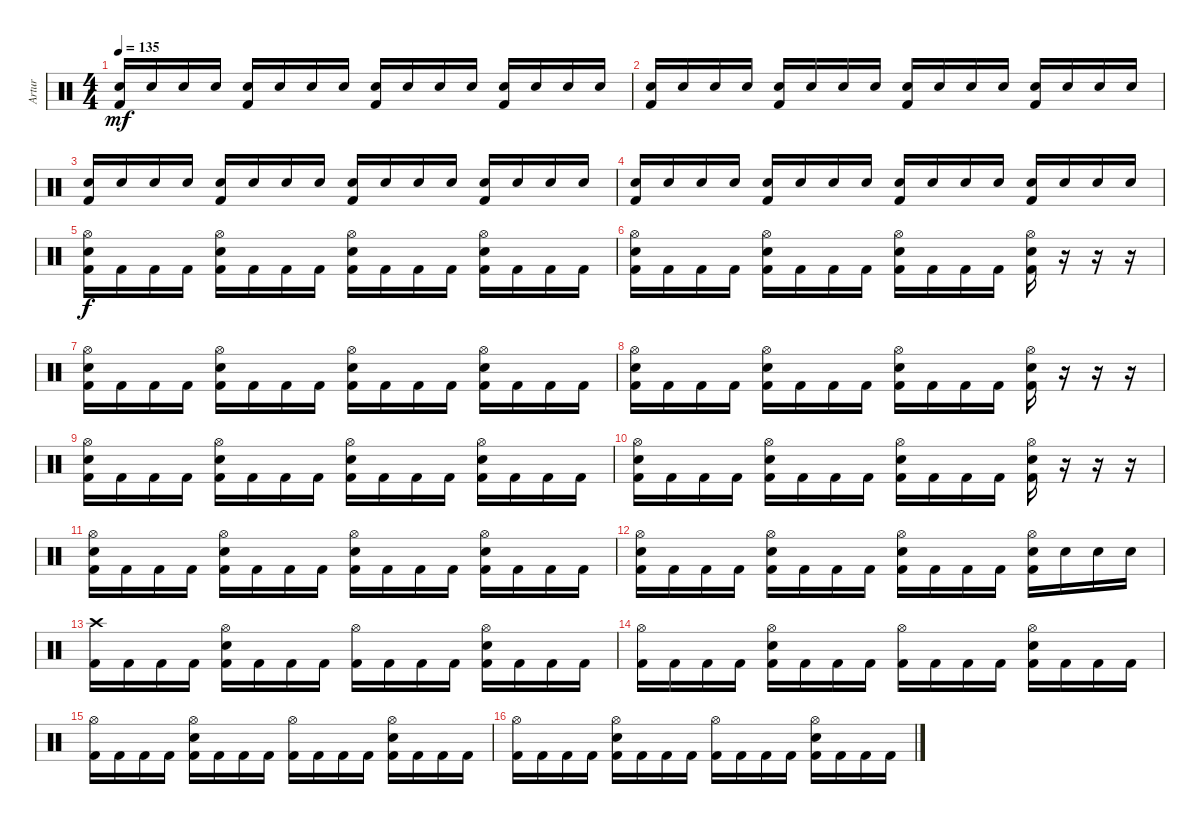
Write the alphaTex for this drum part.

\track ("Artur" "Artur") {instrument percussion}
\staff {score}
\articulation defaults
\ts (4 4)
\tempo 135
\clef neutral
\ks c
("Electric Snare (hit)" "Kick (hit) 2").16{dy mf} "Electric Snare (hit)".16 "Electric Snare (hit)".16 "Electric Snare (hit)".16 ("Electric Snare (hit)" "Kick (hit) 2").16 "Electric Snare (hit)".16 "Electric Snare (hit)".16 "Electric Snare (hit)".16 ("Electric Snare (hit)" "Kick (hit) 2").16 "Electric Snare (hit)".16 "Electric Snare (hit)".16 "Electric Snare (hit)".16 ("Electric Snare (hit)" "Kick (hit) 2").16 "Electric Snare (hit)".16 "Electric Snare (hit)".16 "Electric Snare (hit)".16 |
("Electric Snare (hit)" "Kick (hit) 2").16 "Electric Snare (hit)".16 "Electric Snare (hit)".16 "Electric Snare (hit)".16 ("Electric Snare (hit)" "Kick (hit) 2").16 "Electric Snare (hit)".16 "Electric Snare (hit)".16 "Electric Snare (hit)".16 ("Electric Snare (hit)" "Kick (hit) 2").16 "Electric Snare (hit)".16 "Electric Snare (hit)".16 "Electric Snare (hit)".16 ("Electric Snare (hit)" "Kick (hit) 2").16 "Electric Snare (hit)".16 "Electric Snare (hit)".16 "Electric Snare (hit)".16 |
("Electric Snare (hit)" "Kick (hit) 2").16 "Electric Snare (hit)".16 "Electric Snare (hit)".16 "Electric Snare (hit)".16 ("Electric Snare (hit)" "Kick (hit) 2").16 "Electric Snare (hit)".16 "Electric Snare (hit)".16 "Electric Snare (hit)".16 ("Electric Snare (hit)" "Kick (hit) 2").16 "Electric Snare (hit)".16 "Electric Snare (hit)".16 "Electric Snare (hit)".16 ("Electric Snare (hit)" "Kick (hit) 2").16 "Electric Snare (hit)".16 "Electric Snare (hit)".16 "Electric Snare (hit)".16 |
("Electric Snare (hit)" "Kick (hit) 2").16 "Electric Snare (hit)".16 "Electric Snare (hit)".16 "Electric Snare (hit)".16 ("Electric Snare (hit)" "Kick (hit) 2").16 "Electric Snare (hit)".16 "Electric Snare (hit)".16 "Electric Snare (hit)".16 ("Electric Snare (hit)" "Kick (hit) 2").16 "Electric Snare (hit)".16 "Electric Snare (hit)".16 "Electric Snare (hit)".16 ("Electric Snare (hit)" "Kick (hit) 2").16 "Electric Snare (hit)".16 "Electric Snare (hit)".16 "Electric Snare (hit)".16 |
("Hi-Hat (open)" "Electric Snare (hit)" "Kick (hit) 2").16{dy f} "Kick (hit) 2".16 "Kick (hit) 2".16 "Kick (hit) 2".16 ("Hi-Hat (open)" "Electric Snare (hit)" "Kick (hit) 2").16 "Kick (hit) 2".16 "Kick (hit) 2".16 "Kick (hit) 2".16 ("Hi-Hat (open)" "Electric Snare (hit)" "Kick (hit) 2").16 "Kick (hit) 2".16 "Kick (hit) 2".16 "Kick (hit) 2".16 ("Hi-Hat (open)" "Electric Snare (hit)" "Kick (hit) 2").16 "Kick (hit) 2".16 "Kick (hit) 2".16 "Kick (hit) 2".16 |
("Hi-Hat (open)" "Electric Snare (hit)" "Kick (hit) 2").16 "Kick (hit) 2".16 "Kick (hit) 2".16 "Kick (hit) 2".16 ("Hi-Hat (open)" "Electric Snare (hit)" "Kick (hit) 2").16 "Kick (hit) 2".16 "Kick (hit) 2".16 "Kick (hit) 2".16 ("Hi-Hat (open)" "Electric Snare (hit)" "Kick (hit) 2").16 "Kick (hit) 2".16 "Kick (hit) 2".16 "Kick (hit) 2".16 ("Hi-Hat (open)" "Electric Snare (hit)" "Kick (hit) 2").16 r.16 r.16 r.16 |
("Hi-Hat (open)" "Electric Snare (hit)" "Kick (hit) 2").16 "Kick (hit) 2".16 "Kick (hit) 2".16 "Kick (hit) 2".16 ("Hi-Hat (open)" "Electric Snare (hit)" "Kick (hit) 2").16 "Kick (hit) 2".16 "Kick (hit) 2".16 "Kick (hit) 2".16 ("Hi-Hat (open)" "Electric Snare (hit)" "Kick (hit) 2").16 "Kick (hit) 2".16 "Kick (hit) 2".16 "Kick (hit) 2".16 ("Hi-Hat (open)" "Electric Snare (hit)" "Kick (hit) 2").16 "Kick (hit) 2".16 "Kick (hit) 2".16 "Kick (hit) 2".16 |
("Hi-Hat (open)" "Electric Snare (hit)" "Kick (hit) 2").16 "Kick (hit) 2".16 "Kick (hit) 2".16 "Kick (hit) 2".16 ("Hi-Hat (open)" "Electric Snare (hit)" "Kick (hit) 2").16 "Kick (hit) 2".16 "Kick (hit) 2".16 "Kick (hit) 2".16 ("Hi-Hat (open)" "Electric Snare (hit)" "Kick (hit) 2").16 "Kick (hit) 2".16 "Kick (hit) 2".16 "Kick (hit) 2".16 ("Hi-Hat (open)" "Electric Snare (hit)" "Kick (hit) 2").16 r.16 r.16 r.16 |
("Hi-Hat (open)" "Electric Snare (hit)" "Kick (hit) 2").16 "Kick (hit) 2".16 "Kick (hit) 2".16 "Kick (hit) 2".16 ("Hi-Hat (open)" "Electric Snare (hit)" "Kick (hit) 2").16 "Kick (hit) 2".16 "Kick (hit) 2".16 "Kick (hit) 2".16 ("Hi-Hat (open)" "Electric Snare (hit)" "Kick (hit) 2").16 "Kick (hit) 2".16 "Kick (hit) 2".16 "Kick (hit) 2".16 ("Hi-Hat (open)" "Electric Snare (hit)" "Kick (hit) 2").16 "Kick (hit) 2".16 "Kick (hit) 2".16 "Kick (hit) 2".16 |
("Hi-Hat (open)" "Electric Snare (hit)" "Kick (hit) 2").16 "Kick (hit) 2".16 "Kick (hit) 2".16 "Kick (hit) 2".16 ("Hi-Hat (open)" "Electric Snare (hit)" "Kick (hit) 2").16 "Kick (hit) 2".16 "Kick (hit) 2".16 "Kick (hit) 2".16 ("Hi-Hat (open)" "Electric Snare (hit)" "Kick (hit) 2").16 "Kick (hit) 2".16 "Kick (hit) 2".16 "Kick (hit) 2".16 ("Hi-Hat (open)" "Electric Snare (hit)" "Kick (hit) 2").16 r.16 r.16 r.16 |
("Hi-Hat (open)" "Electric Snare (hit)" "Kick (hit) 2").16 "Kick (hit) 2".16 "Kick (hit) 2".16 "Kick (hit) 2".16 ("Hi-Hat (open)" "Electric Snare (hit)" "Kick (hit) 2").16 "Kick (hit) 2".16 "Kick (hit) 2".16 "Kick (hit) 2".16 ("Hi-Hat (open)" "Electric Snare (hit)" "Kick (hit) 2").16 "Kick (hit) 2".16 "Kick (hit) 2".16 "Kick (hit) 2".16 ("Hi-Hat (open)" "Electric Snare (hit)" "Kick (hit) 2").16 "Kick (hit) 2".16 "Kick (hit) 2".16 "Kick (hit) 2".16 |
("Hi-Hat (open)" "Electric Snare (hit)" "Kick (hit) 2").16 "Kick (hit) 2".16 "Kick (hit) 2".16 "Kick (hit) 2".16 ("Hi-Hat (open)" "Electric Snare (hit)" "Kick (hit) 2").16 "Kick (hit) 2".16 "Kick (hit) 2".16 "Kick (hit) 2".16 ("Hi-Hat (open)" "Electric Snare (hit)" "Kick (hit) 2").16 "Kick (hit) 2".16 "Kick (hit) 2".16 "Kick (hit) 2".16 ("Hi-Hat (open)" "Electric Snare (hit)" "Kick (hit) 2").16 "Electric Snare (hit)".16 "Electric Snare (hit)".16 "Electric Snare (hit)".16 |
("Crash high (hit)" "Kick (hit) 2").16 "Kick (hit) 2".16 "Kick (hit) 2".16 "Kick (hit) 2".16 ("Hi-Hat (open)" "Electric Snare (hit)" "Kick (hit) 2").16 "Kick (hit) 2".16 "Kick (hit) 2".16 "Kick (hit) 2".16 ("Hi-Hat (open)" "Kick (hit) 2").16 "Kick (hit) 2".16 "Kick (hit) 2".16 "Kick (hit) 2".16 ("Hi-Hat (open)" "Electric Snare (hit)" "Kick (hit) 2").16 "Kick (hit) 2".16 "Kick (hit) 2".16 "Kick (hit) 2".16 |
("Hi-Hat (open)" "Kick (hit) 2").16 "Kick (hit) 2".16 "Kick (hit) 2".16 "Kick (hit) 2".16 ("Hi-Hat (open)" "Electric Snare (hit)" "Kick (hit) 2").16 "Kick (hit) 2".16 "Kick (hit) 2".16 "Kick (hit) 2".16 ("Hi-Hat (open)" "Kick (hit) 2").16 "Kick (hit) 2".16 "Kick (hit) 2".16 "Kick (hit) 2".16 ("Hi-Hat (open)" "Electric Snare (hit)" "Kick (hit) 2").16 "Kick (hit) 2".16 "Kick (hit) 2".16 "Kick (hit) 2".16 |
("Hi-Hat (open)" "Kick (hit) 2").16 "Kick (hit) 2".16 "Kick (hit) 2".16 "Kick (hit) 2".16 ("Hi-Hat (open)" "Electric Snare (hit)" "Kick (hit) 2").16 "Kick (hit) 2".16 "Kick (hit) 2".16 "Kick (hit) 2".16 ("Hi-Hat (open)" "Kick (hit) 2").16 "Kick (hit) 2".16 "Kick (hit) 2".16 "Kick (hit) 2".16 ("Hi-Hat (open)" "Electric Snare (hit)" "Kick (hit) 2").16 "Kick (hit) 2".16 "Kick (hit) 2".16 "Kick (hit) 2".16 |
("Hi-Hat (open)" "Kick (hit) 2").16 "Kick (hit) 2".16 "Kick (hit) 2".16 "Kick (hit) 2".16 ("Hi-Hat (open)" "Electric Snare (hit)" "Kick (hit) 2").16 "Kick (hit) 2".16 "Kick (hit) 2".16 "Kick (hit) 2".16 ("Hi-Hat (open)" "Kick (hit) 2").16 "Kick (hit) 2".16 "Kick (hit) 2".16 "Kick (hit) 2".16 ("Hi-Hat (open)" "Electric Snare (hit)" "Kick (hit) 2").16 "Kick (hit) 2".16 "Kick (hit) 2".16 "Kick (hit) 2".16
